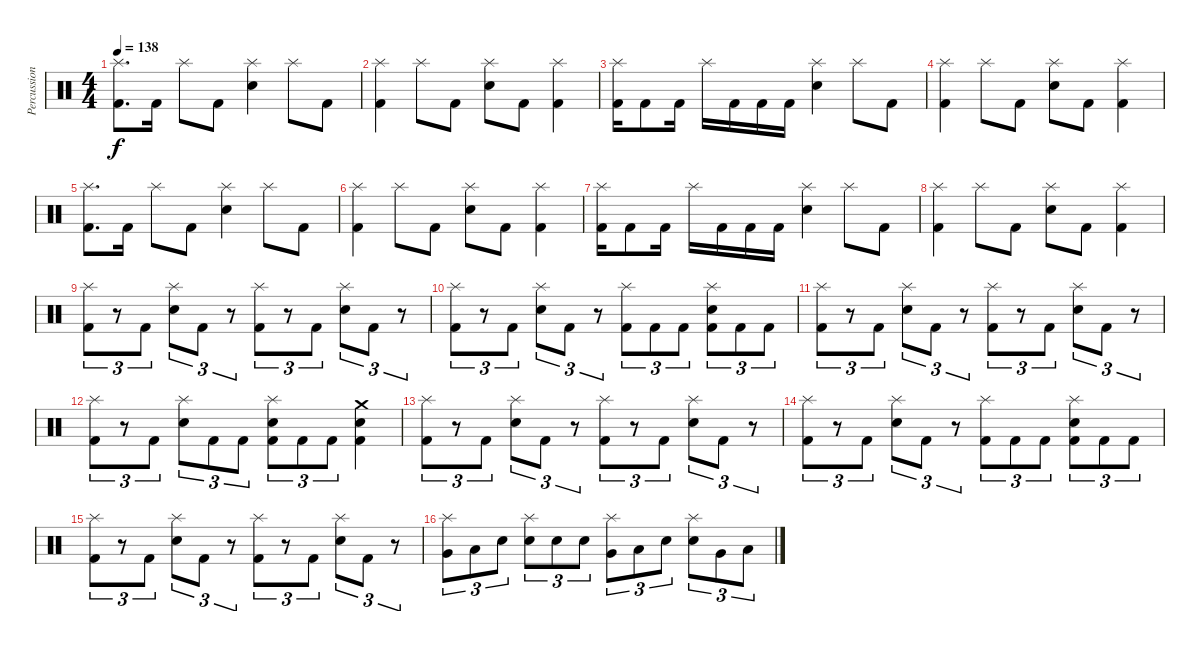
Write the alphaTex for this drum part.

\track ("Percussion" "Percussion") {instrument percussion}
\staff {score}
\articulation defaults
\ts (4 4)
\tempo 138
\clef neutral
\ks c
("Splash (hit)" "Kick (hit) 2").8{d dy f} "Kick (hit) 2".16 "Splash (hit)".8 "Kick (hit) 2".8 ("Splash (hit)" "Snare (hit) 2").4 "Splash (hit)".8 "Kick (hit) 2".8 |
("Splash (hit)" "Kick (hit) 2").4 "Splash (hit)".8 "Kick (hit) 2".8 ("Splash (hit)" "Electric Snare (hit)").8 "Kick (hit) 2".8 ("Splash (hit)" "Kick (hit) 2").4 |
("Splash (hit)" "Kick (hit) 2").16 "Kick (hit) 2".8 "Kick (hit) 2".16 "Splash (hit)".16 "Kick (hit) 2".16 "Kick (hit) 2".16 "Kick (hit) 2".16 ("Splash (hit)" "Snare (hit) 2").4 "Splash (hit)".8 "Kick (hit) 2".8 |
("Splash (hit)" "Kick (hit) 2").4 "Splash (hit)".8 "Kick (hit) 2".8 ("Splash (hit)" "Electric Snare (hit)").8 "Kick (hit) 2".8 ("Splash (hit)" "Kick (hit) 2").4 |
("Splash (hit)" "Kick (hit) 2").8{d} "Kick (hit) 2".16 "Splash (hit)".8 "Kick (hit) 2".8 ("Splash (hit)" "Snare (hit) 2").4 "Splash (hit)".8 "Kick (hit) 2".8 |
("Splash (hit)" "Kick (hit) 2").4 "Splash (hit)".8 "Kick (hit) 2".8 ("Splash (hit)" "Electric Snare (hit)").8 "Kick (hit) 2".8 ("Splash (hit)" "Kick (hit) 2").4 |
("Splash (hit)" "Kick (hit) 2").16 "Kick (hit) 2".8 "Kick (hit) 2".16 "Splash (hit)".16 "Kick (hit) 2".16 "Kick (hit) 2".16 "Kick (hit) 2".16 ("Splash (hit)" "Snare (hit) 2").4 "Splash (hit)".8 "Kick (hit) 2".8 |
("Splash (hit)" "Kick (hit) 2").4 "Splash (hit)".8 "Kick (hit) 2".8 ("Splash (hit)" "Electric Snare (hit)").8 "Kick (hit) 2".8 ("Splash (hit)" "Kick (hit) 2").4 |
("Splash (hit)" "Kick (hit) 2").8{tu (3 2)} r.8{tu (3 2)} "Kick (hit) 2".8{tu (3 2)} ("Splash (hit)" "Snare (hit) 2").8{tu (3 2)} "Kick (hit) 2".8{tu (3 2)} r.8{tu (3 2)} ("Splash (hit)" "Kick (hit) 2").8{tu (3 2)} r.8{tu (3 2)} "Kick (hit) 2".8{tu (3 2)} ("Splash (hit)" "Snare (hit) 2").8{tu (3 2)} "Kick (hit) 2".8{tu (3 2)} r.8{tu (3 2)} |
("Splash (hit)" "Kick (hit) 2").8{tu (3 2)} r.8{tu (3 2)} "Kick (hit) 2".8{tu (3 2)} ("Splash (hit)" "Snare (hit) 2").8{tu (3 2)} "Kick (hit) 2".8{tu (3 2)} r.8{tu (3 2)} ("Splash (hit)" "Kick (hit) 2").8{tu (3 2)} "Kick (hit) 2".8{tu (3 2)} "Kick (hit) 2".8{tu (3 2)} ("Splash (hit)" "Snare (hit) 2" "Kick (hit) 2").8{tu (3 2)} "Kick (hit) 2".8{tu (3 2)} "Kick (hit) 2".8{tu (3 2)} |
("Splash (hit)" "Kick (hit) 2").8{tu (3 2)} r.8{tu (3 2)} "Kick (hit) 2".8{tu (3 2)} ("Splash (hit)" "Snare (hit) 2").8{tu (3 2)} "Kick (hit) 2".8{tu (3 2)} r.8{tu (3 2)} ("Splash (hit)" "Kick (hit) 2").8{tu (3 2)} r.8{tu (3 2)} "Kick (hit) 2".8{tu (3 2)} ("Splash (hit)" "Snare (hit) 2").8{tu (3 2)} "Kick (hit) 2".8{tu (3 2)} r.8{tu (3 2)} |
("Splash (hit)" "Kick (hit) 2").8{tu (3 2)} r.8{tu (3 2)} "Kick (hit) 2".8{tu (3 2)} ("Splash (hit)" "Snare (hit) 2").8{tu (3 2)} "Kick (hit) 2".8{tu (3 2)} "Kick (hit) 2".8{tu (3 2)} ("Splash (hit)" "Snare (hit) 2" "Kick (hit) 2").8{tu (3 2)} "Kick (hit) 2".8{tu (3 2)} "Kick (hit) 2".8{tu (3 2)} ("Crash medium (hit)" "Snare (hit) 2" "Kick (hit) 2").4 |
("Splash (hit)" "Kick (hit) 2").8{tu (3 2)} r.8{tu (3 2)} "Kick (hit) 2".8{tu (3 2)} ("Splash (hit)" "Snare (hit) 2").8{tu (3 2)} "Kick (hit) 2".8{tu (3 2)} r.8{tu (3 2)} ("Splash (hit)" "Kick (hit) 2").8{tu (3 2)} r.8{tu (3 2)} "Kick (hit) 2".8{tu (3 2)} ("Splash (hit)" "Snare (hit) 2").8{tu (3 2)} "Kick (hit) 2".8{tu (3 2)} r.8{tu (3 2)} |
("Splash (hit)" "Kick (hit) 2").8{tu (3 2)} r.8{tu (3 2)} "Kick (hit) 2".8{tu (3 2)} ("Splash (hit)" "Snare (hit) 2").8{tu (3 2)} "Kick (hit) 2".8{tu (3 2)} r.8{tu (3 2)} ("Splash (hit)" "Kick (hit) 2").8{tu (3 2)} "Kick (hit) 2".8{tu (3 2)} "Kick (hit) 2".8{tu (3 2)} ("Splash (hit)" "Snare (hit) 2" "Kick (hit) 2").8{tu (3 2)} "Kick (hit) 2".8{tu (3 2)} "Kick (hit) 2".8{tu (3 2)} |
("Splash (hit)" "Kick (hit) 2").8{tu (3 2)} r.8{tu (3 2)} "Kick (hit) 2".8{tu (3 2)} ("Splash (hit)" "Snare (hit) 2").8{tu (3 2)} "Kick (hit) 2".8{tu (3 2)} r.8{tu (3 2)} ("Splash (hit)" "Kick (hit) 2").8{tu (3 2)} r.8{tu (3 2)} "Kick (hit) 2".8{tu (3 2)} ("Splash (hit)" "Snare (hit) 2").8{tu (3 2)} "Kick (hit) 2".8{tu (3 2)} r.8{tu (3 2)} |
("Splash (hit)" "Very Low Tom (hit)").8{tu (3 2)} "Low Floor Tom (hit)".8{tu (3 2)} "Snare (hit) 2".8{tu (3 2)} ("Splash (hit)" "Snare (hit) 2").8{tu (3 2)} "Snare (hit) 2".8{tu (3 2)} "Snare (hit) 2".8{tu (3 2)} ("Splash (hit)" "Very Low Tom (hit)").8{tu (3 2)} "Low Floor Tom (hit)".8{tu (3 2)} "Snare (hit) 2".8{tu (3 2)} ("Splash (hit)" "Snare (hit) 2").8{tu (3 2)} "Very Low Tom (hit)".8{tu (3 2)} "Low Floor Tom (hit)".8{tu (3 2)}
